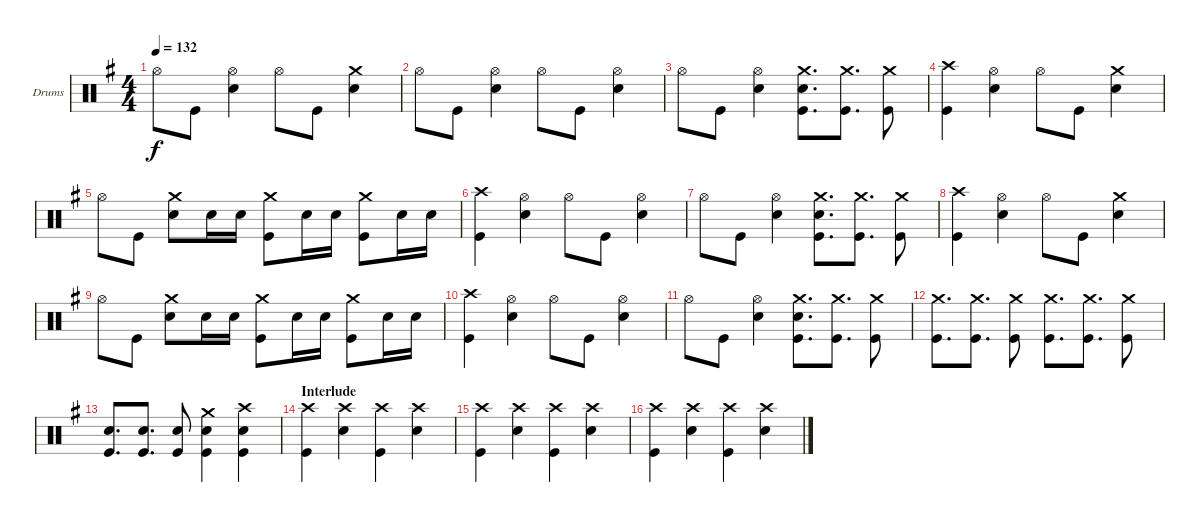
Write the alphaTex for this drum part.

\bracketExtendMode groupsimilarinstruments
\firstSystemTrackNameOrientation horizontal
\otherSystemsTrackNameOrientation horizontal
\track ("Drumkit" "Drums") {instrument percussion}
\staff {score}
\articulation defaults
\ts (4 4)
\tempo 132
\clef neutral
\ks g "Hi-Hat (open)".8{dy f} "Kick (hit)".8
("Hi-Hat (open)" "Snare (hit) 2").4 "Hi-Hat (open)".8 "Kick (hit)".8 ("Crash medium (hit)" "Snare (hit) 2").4 |
"Hi-Hat (open)".8 "Kick (hit)".8 ("Hi-Hat (open)" "Snare (hit) 2").4 "Hi-Hat (open)".8 "Kick (hit)".8 ("Hi-Hat (open)" "Snare (hit) 2").4 |
"Hi-Hat (open)".8 "Kick (hit)".8 ("Hi-Hat (open)" "Snare (hit) 2").4 ("Crash medium (hit)" "Snare (hit) 2" "Kick (hit)").8{d} ("Crash medium (hit)" "Kick (hit)").8{d} ("Crash medium (hit)" "Kick (hit)").8 |
("Crash high (hit)" "Kick (hit)").4 ("Hi-Hat (open)" "Snare (hit) 2").4 "Hi-Hat (open)".8 "Kick (hit)".8 ("Crash medium (hit)" "Snare (hit) 2").4 |
"Hi-Hat (open)".8 "Kick (hit)".8 ("Crash medium (hit)" "Snare (hit) 2").8 "Snare (hit) 2".16 "Snare (hit) 2".16 ("Crash medium (hit)" "Kick (hit)").8 "Snare (hit) 2".16 "Snare (hit) 2".16 ("Crash medium (hit)" "Kick (hit)").8 "Snare (hit) 2".16 "Snare (hit) 2".16 |
("Crash high (hit)" "Kick (hit)").4 ("Hi-Hat (open)" "Snare (hit) 2").4 "Hi-Hat (open)".8 "Kick (hit)".8 ("Hi-Hat (open)" "Snare (hit) 2").4 |
"Hi-Hat (open)".8 "Kick (hit)".8 ("Hi-Hat (open)" "Snare (hit) 2").4 ("Crash medium (hit)" "Snare (hit) 2" "Kick (hit)").8{d} ("Crash medium (hit)" "Kick (hit)").8{d} ("Crash medium (hit)" "Kick (hit)").8 |
("Crash high (hit)" "Kick (hit)").4 ("Hi-Hat (open)" "Snare (hit) 2").4 "Hi-Hat (open)".8 "Kick (hit)".8 ("Crash medium (hit)" "Snare (hit) 2").4 |
"Hi-Hat (open)".8 "Kick (hit)".8 ("Crash medium (hit)" "Snare (hit) 2").8 "Snare (hit) 2".16 "Snare (hit) 2".16 ("Crash medium (hit)" "Kick (hit)").8 "Snare (hit) 2".16 "Snare (hit) 2".16 ("Crash medium (hit)" "Kick (hit)").8 "Snare (hit) 2".16 "Snare (hit) 2".16 |
("Crash high (hit)" "Kick (hit)").4 ("Hi-Hat (open)" "Snare (hit) 2").4 "Hi-Hat (open)".8 "Kick (hit)".8 ("Hi-Hat (open)" "Snare (hit) 2").4 |
"Hi-Hat (open)".8 "Kick (hit)".8 ("Hi-Hat (open)" "Snare (hit) 2").4 ("Crash medium (hit)" "Snare (hit) 2" "Kick (hit)").8{d} ("Crash medium (hit)" "Kick (hit)").8{d} ("Crash medium (hit)" "Kick (hit)").8 |
("Crash medium (hit)" "Kick (hit)").8{d} ("Crash medium (hit)" "Kick (hit)").8{d} ("Crash medium (hit)" "Kick (hit)").8 ("Crash medium (hit)" "Kick (hit)").8{d} ("Crash medium (hit)" "Kick (hit)").8{d} ("Crash medium (hit)" "Kick (hit)").8 |
("Snare (hit) 2" "Kick (hit)").8{d} ("Snare (hit) 2" "Kick (hit)").8{d} ("Snare (hit) 2" "Kick (hit)").8 ("Crash medium (hit)" "Snare (hit) 2" "Kick (hit)").4 ("Crash high (hit)" "Snare (hit) 2" "Kick (hit)").4 |
\section ("" "Interlude")
("Crash high (hit)" "Kick (hit)").4 ("Crash high (hit)" "Snare (hit) 2").4 ("Crash high (hit)" "Kick (hit)").4 ("Crash high (hit)" "Snare (hit) 2").4 |
("Crash high (hit)" "Kick (hit)").4 ("Crash high (hit)" "Snare (hit) 2").4 ("Crash high (hit)" "Kick (hit)").4 ("Crash high (hit)" "Snare (hit) 2").4 |
("Crash high (hit)" "Kick (hit)").4 ("Crash high (hit)" "Snare (hit) 2").4 ("Crash high (hit)" "Kick (hit)").4 ("Crash high (hit)" "Snare (hit) 2").4
